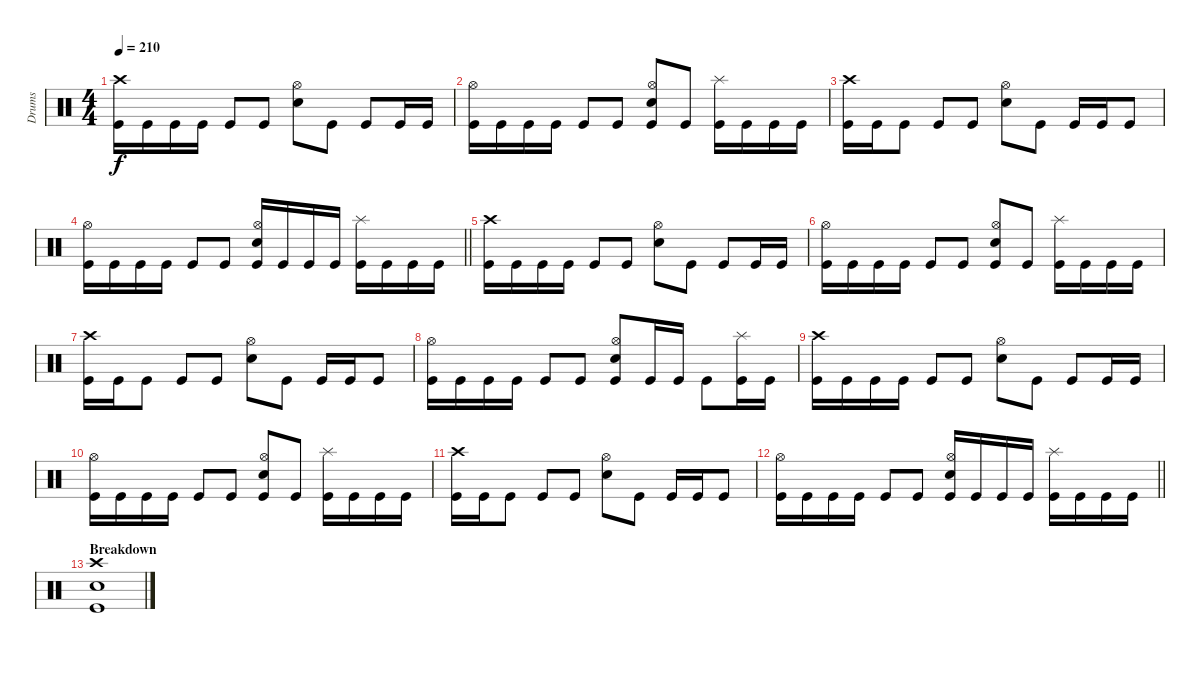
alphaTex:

\track ("Drums" "Drums") {instrument percussion}
\staff {score}
\articulation defaults
\ts (4 4)
\tempo 210
\clef neutral
\ks c
("Crash high (hit)" "Kick (hit)").16{dy f} "Kick (hit)".16 "Kick (hit)".16 "Kick (hit)".16 "Kick (hit)".8 "Kick (hit)".8 ("Hi-Hat (open)" "Snare (hit) 2").8 "Kick (hit)".8 "Kick (hit)".8 "Kick (hit)".16 "Kick (hit)".16 |
("Hi-Hat (open)" "Kick (hit)").16 "Kick (hit)".16 "Kick (hit)".16 "Kick (hit)".16 "Kick (hit)".8 "Kick (hit)".8 ("Hi-Hat (open)" "Snare (hit) 2" "Kick (hit)").8 "Kick (hit)".8 ("Splash (hit)" "Kick (hit)").16 "Kick (hit)".16 "Kick (hit)".16 "Kick (hit)".16 |
("Crash high (hit)" "Kick (hit)").16 "Kick (hit)".16 "Kick (hit)".8 "Kick (hit)".8 "Kick (hit)".8 ("Hi-Hat (open)" "Snare (hit) 2").8 "Kick (hit)".8 "Kick (hit)".16 "Kick (hit)".16 "Kick (hit)".8 |
\barLineRight lightlight
("Hi-Hat (open)" "Kick (hit)").16 "Kick (hit)".16 "Kick (hit)".16 "Kick (hit)".16 "Kick (hit)".8 "Kick (hit)".8 ("Hi-Hat (open)" "Snare (hit) 2" "Kick (hit)").16 "Kick (hit)".16 "Kick (hit)".16 "Kick (hit)".16 ("Splash (hit)" "Kick (hit)").16 "Kick (hit)".16 "Kick (hit)".16 "Kick (hit)".16 |
("Crash high (hit)" "Kick (hit)").16 "Kick (hit)".16 "Kick (hit)".16 "Kick (hit)".16 "Kick (hit)".8 "Kick (hit)".8 ("Hi-Hat (open)" "Snare (hit) 2").8 "Kick (hit)".8 "Kick (hit)".8 "Kick (hit)".16 "Kick (hit)".16 |
("Hi-Hat (open)" "Kick (hit)").16 "Kick (hit)".16 "Kick (hit)".16 "Kick (hit)".16 "Kick (hit)".8 "Kick (hit)".8 ("Hi-Hat (open)" "Snare (hit) 2" "Kick (hit)").8 "Kick (hit)".8 ("Splash (hit)" "Kick (hit)").16 "Kick (hit)".16 "Kick (hit)".16 "Kick (hit)".16 |
("Crash high (hit)" "Kick (hit)").16 "Kick (hit)".16 "Kick (hit)".8 "Kick (hit)".8 "Kick (hit)".8 ("Hi-Hat (open)" "Snare (hit) 2").8 "Kick (hit)".8 "Kick (hit)".16 "Kick (hit)".16 "Kick (hit)".8 |
("Hi-Hat (open)" "Kick (hit)").16 "Kick (hit)".16 "Kick (hit)".16 "Kick (hit)".16 "Kick (hit)".8 "Kick (hit)".8 ("Hi-Hat (open)" "Snare (hit) 2" "Kick (hit)").8 "Kick (hit)".16 "Kick (hit)".16 "Kick (hit)".8 ("Splash (hit)" "Kick (hit)").16 "Kick (hit)".16 |
("Crash high (hit)" "Kick (hit)").16 "Kick (hit)".16 "Kick (hit)".16 "Kick (hit)".16 "Kick (hit)".8 "Kick (hit)".8 ("Hi-Hat (open)" "Snare (hit) 2").8 "Kick (hit)".8 "Kick (hit)".8 "Kick (hit)".16 "Kick (hit)".16 |
("Hi-Hat (open)" "Kick (hit)").16 "Kick (hit)".16 "Kick (hit)".16 "Kick (hit)".16 "Kick (hit)".8 "Kick (hit)".8 ("Hi-Hat (open)" "Snare (hit) 2" "Kick (hit)").8 "Kick (hit)".8 ("Splash (hit)" "Kick (hit)").16 "Kick (hit)".16 "Kick (hit)".16 "Kick (hit)".16 |
("Crash high (hit)" "Kick (hit)").16 "Kick (hit)".16 "Kick (hit)".8 "Kick (hit)".8 "Kick (hit)".8 ("Hi-Hat (open)" "Snare (hit) 2").8 "Kick (hit)".8 "Kick (hit)".16 "Kick (hit)".16 "Kick (hit)".8 |
\barLineRight lightlight
("Hi-Hat (open)" "Kick (hit)").16 "Kick (hit)".16 "Kick (hit)".16 "Kick (hit)".16 "Kick (hit)".8 "Kick (hit)".8 ("Hi-Hat (open)" "Snare (hit) 2" "Kick (hit)").16 "Kick (hit)".16 "Kick (hit)".16 "Kick (hit)".16 ("Splash (hit)" "Kick (hit)").16 "Kick (hit)".16 "Kick (hit)".16 "Kick (hit)".16 |
\section ("" "Breakdown")
("Crash high (hit)" "Snare (hit) 2" "Kick (hit)").1
